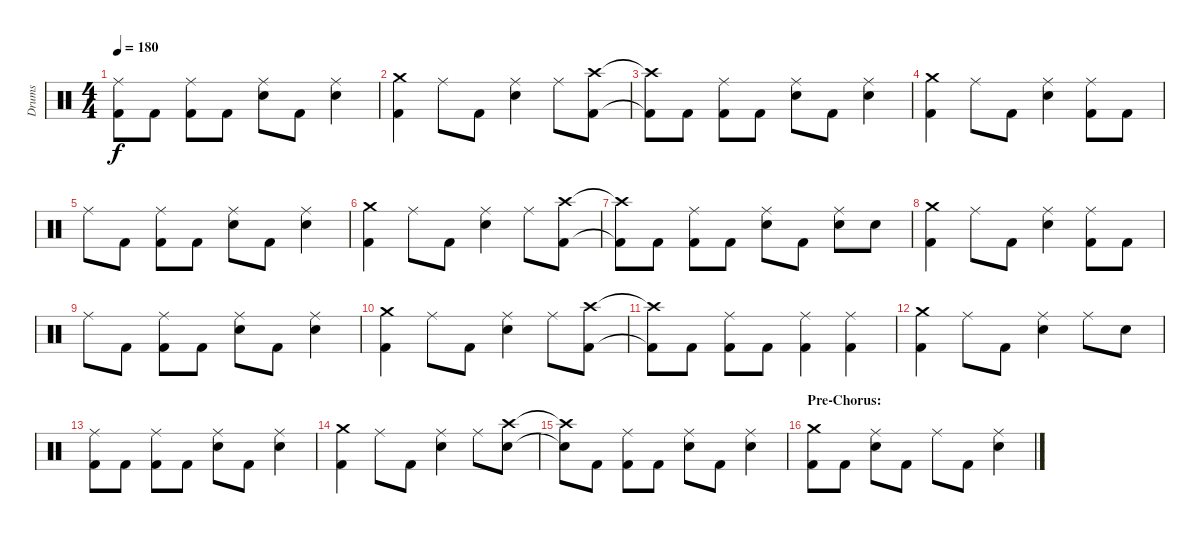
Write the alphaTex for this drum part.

\track ("Drums" "Drums") {instrument percussion}
\staff {score}
\articulation defaults
\ts (4 4)
\tempo 180
\clef neutral
\ks c
("Ride (middle)" "Kick (hit) 2").8{dy f} "Kick (hit) 2".8 ("Ride (middle)" "Kick (hit) 2").8 "Kick (hit) 2".8 ("Ride (middle)" "Electric Snare (hit)").8 "Kick (hit) 2".8 ("Ride (middle)" "Electric Snare (hit)").4 |
("Crash medium (hit)" "Kick (hit) 2").4 "Ride (middle)".8 "Kick (hit) 2".8 ("Ride (middle)" "Electric Snare (hit)").4 "Ride (middle)".8 ("Crash high (hit)" "Kick (hit) 2").8 |
("Crash high (hit)"{t} "Kick (hit) 2"{t}).8 "Kick (hit) 2".8 ("Ride (middle)" "Kick (hit) 2").8 "Kick (hit) 2".8 ("Ride (middle)" "Electric Snare (hit)").8 "Kick (hit) 2".8 ("Ride (middle)" "Electric Snare (hit)").4 |
("Crash medium (hit)" "Kick (hit) 2").4 "Ride (middle)".8 "Kick (hit) 2".8 ("Ride (middle)" "Electric Snare (hit)").4 ("Ride (middle)" "Kick (hit) 2").8 "Kick (hit) 2".8 |
"Ride (middle)".8 "Kick (hit) 2".8 ("Ride (middle)" "Kick (hit) 2").8 "Kick (hit) 2".8 ("Ride (middle)" "Electric Snare (hit)").8 "Kick (hit) 2".8 ("Ride (middle)" "Electric Snare (hit)").4 |
("Crash medium (hit)" "Kick (hit) 2").4 "Ride (middle)".8 "Kick (hit) 2".8 ("Ride (middle)" "Electric Snare (hit)").4 "Ride (middle)".8 ("Crash high (hit)" "Kick (hit) 2").8 |
("Crash high (hit)"{t} "Kick (hit) 2"{t}).8 "Kick (hit) 2".8 ("Ride (middle)" "Kick (hit) 2").8 "Kick (hit) 2".8 ("Ride (middle)" "Electric Snare (hit)").8 "Kick (hit) 2".8 ("Ride (middle)" "Electric Snare (hit)").8 "Electric Snare (hit)".8 |
("Crash medium (hit)" "Kick (hit) 2").4 "Ride (middle)".8 "Kick (hit) 2".8 ("Ride (middle)" "Electric Snare (hit)").4 ("Ride (middle)" "Kick (hit) 2").8 "Kick (hit) 2".8 |
"Ride (middle)".8 "Kick (hit) 2".8 ("Ride (middle)" "Kick (hit) 2").8 "Kick (hit) 2".8 ("Ride (middle)" "Electric Snare (hit)").8 "Kick (hit) 2".8 ("Ride (middle)" "Electric Snare (hit)").4 |
("Crash medium (hit)" "Kick (hit) 2").4 "Ride (middle)".8 "Kick (hit) 2".8 ("Ride (middle)" "Electric Snare (hit)").4 "Ride (middle)".8 ("Crash high (hit)" "Kick (hit) 2").8 |
("Crash high (hit)"{t} "Kick (hit) 2"{t}).8 "Kick (hit) 2".8 ("Ride (middle)" "Kick (hit) 2").8 "Kick (hit) 2".8 ("Ride (middle)" "Kick (hit) 2").4 ("Ride (middle)" "Kick (hit) 2").4 |
("Crash medium (hit)" "Kick (hit) 2").4 "Ride (middle)".8 "Kick (hit) 2".8 ("Ride (middle)" "Electric Snare (hit)").4 "Ride (middle)".8 "Electric Snare (hit)".8 |
("Ride (middle)" "Kick (hit) 2").8 "Kick (hit) 2".8 ("Ride (middle)" "Kick (hit) 2").8 "Kick (hit) 2".8 ("Ride (middle)" "Electric Snare (hit)").8 "Kick (hit) 2".8 ("Ride (middle)" "Electric Snare (hit)").4 |
("Crash medium (hit)" "Kick (hit) 2").4 "Ride (middle)".8 "Kick (hit) 2".8 ("Ride (middle)" "Electric Snare (hit)").4 "Ride (middle)".8 ("Crash high (hit)" "Electric Snare (hit)").8 |
("Crash high (hit)"{t} "Electric Snare (hit)"{t}).8 "Kick (hit) 2".8 ("Ride (middle)" "Kick (hit) 2").8 "Kick (hit) 2".8 ("Ride (middle)" "Electric Snare (hit)").8 "Kick (hit) 2".8 ("Ride (middle)" "Electric Snare (hit)").4 |
\section ("" "Pre-Chorus:")
("Crash medium (hit)" "Kick (hit) 2").8 "Kick (hit) 2".8 ("Ride (middle)" "Electric Snare (hit)").8 "Kick (hit) 2".8 "Ride (middle)".8 "Kick (hit) 2".8 ("Ride (middle)" "Electric Snare (hit)").4
